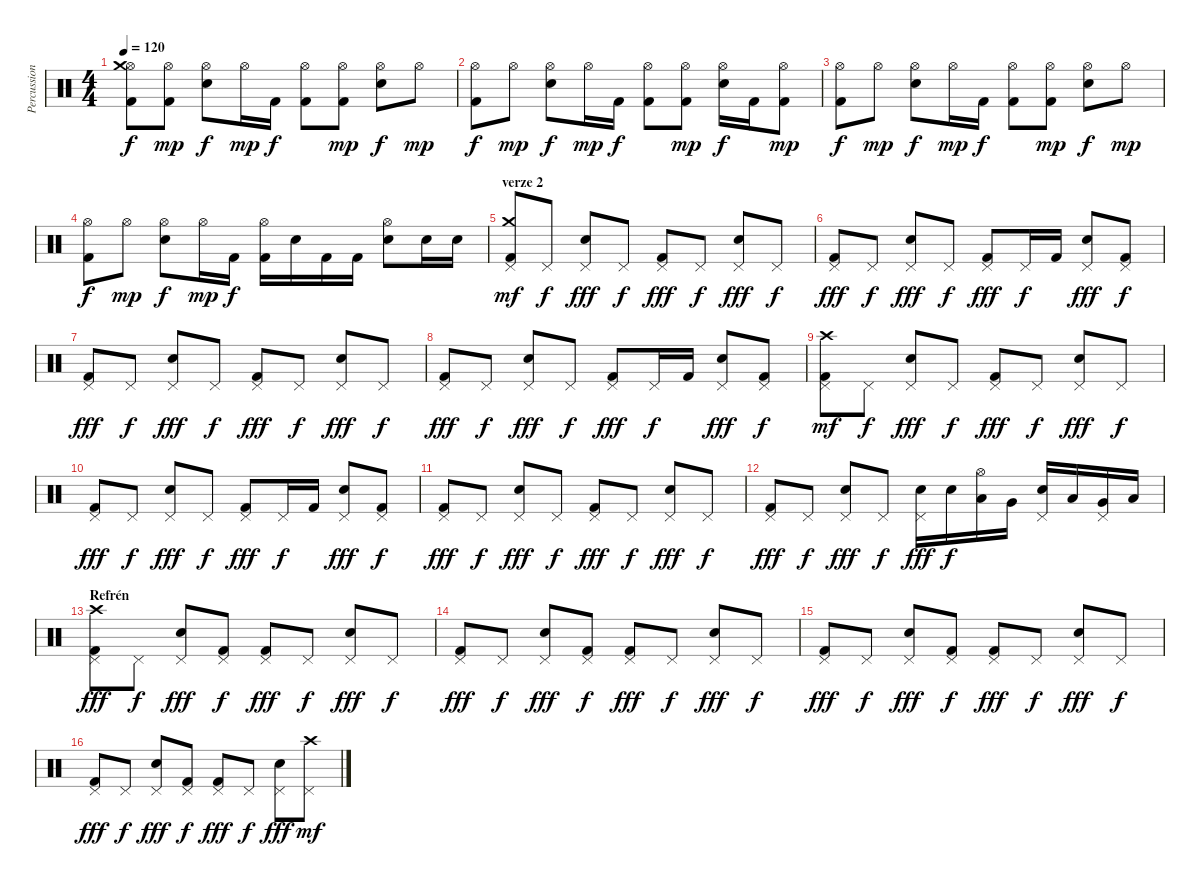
\track ("Percussion" "Percussion") {instrument percussion}
\staff {score}
\articulation defaults
\ts (4 4)
\tempo 120
\clef neutral
\ks c
("Hi-Hat (open)" "Kick (hit) 2" "Crash medium (hit)").8{dy f} ("Hi-Hat (open)" "Kick (hit) 2").8{dy mp} ("Hi-Hat (open)" "Snare (hit) 2").8{dy f} "Hi-Hat (open)".16{dy mp} "Kick (hit) 2".16{dy f} ("Hi-Hat (open)" "Kick (hit) 2").8 ("Hi-Hat (open)" "Kick (hit) 2").8{dy mp} ("Hi-Hat (open)" "Snare (hit) 2").8{dy f} "Hi-Hat (open)".8{dy mp} |
("Hi-Hat (open)" "Kick (hit) 2").8{dy f} "Hi-Hat (open)".8{dy mp} ("Hi-Hat (open)" "Snare (hit) 2").8{dy f} "Hi-Hat (open)".16{dy mp} "Kick (hit) 2".16{dy f} ("Hi-Hat (open)" "Kick (hit) 2").8 ("Hi-Hat (open)" "Kick (hit) 2").8{dy mp} ("Hi-Hat (open)" "Snare (hit) 2").16{dy f} "Kick (hit) 2".16 ("Hi-Hat (open)" "Kick (hit) 2").8{dy mp} |
("Hi-Hat (open)" "Kick (hit) 2").8{dy f} "Hi-Hat (open)".8{dy mp} ("Hi-Hat (open)" "Snare (hit) 2").8{dy f} "Hi-Hat (open)".16{dy mp} "Kick (hit) 2".16{dy f} ("Hi-Hat (open)" "Kick (hit) 2").8 ("Hi-Hat (open)" "Kick (hit) 2").8{dy mp} ("Hi-Hat (open)" "Snare (hit) 2").8{dy f} "Hi-Hat (open)".8{dy mp} |
("Hi-Hat (open)" "Kick (hit) 2").8{dy f} "Hi-Hat (open)".8{dy mp} ("Hi-Hat (open)" "Snare (hit) 2").8{dy f} "Hi-Hat (open)".16{dy mp} "Kick (hit) 2".16{dy f} ("Hi-Hat (open)" "Kick (hit) 2").16 "Snare (hit) 2".16 "Kick (hit) 2".16 "Kick (hit) 2".16 ("Hi-Hat (open)" "Snare (hit) 2").8 "Snare (hit) 2".16 "Snare (hit) 2".16 |
\section ("" "verze 2")
("Pedal Hi-Hat (hit)" "Kick (hit) 2" "Crash medium (hit)").8{dy mf} "Pedal Hi-Hat (hit)".8{dy f} ("Pedal Hi-Hat (hit)" "Snare (hit) 2").8{dy fff} "Pedal Hi-Hat (hit)".8{dy f} ("Pedal Hi-Hat (hit)" "Kick (hit) 2").8{dy fff} "Pedal Hi-Hat (hit)".8{dy f} ("Pedal Hi-Hat (hit)" "Snare (hit) 2").8{dy fff} "Pedal Hi-Hat (hit)".8{dy f} |
("Pedal Hi-Hat (hit)" "Kick (hit) 2").8{dy fff} "Pedal Hi-Hat (hit)".8{dy f} ("Pedal Hi-Hat (hit)" "Snare (hit) 2").8{dy fff} "Pedal Hi-Hat (hit)".8{dy f} ("Pedal Hi-Hat (hit)" "Kick (hit) 2").8{dy fff} "Pedal Hi-Hat (hit)".16{dy f} "Kick (hit) 2".16 ("Pedal Hi-Hat (hit)" "Snare (hit) 2").8{dy fff} ("Pedal Hi-Hat (hit)" "Kick (hit) 2").8{dy f} |
("Pedal Hi-Hat (hit)" "Kick (hit) 2").8{dy fff} "Pedal Hi-Hat (hit)".8{dy f} ("Pedal Hi-Hat (hit)" "Snare (hit) 2").8{dy fff} "Pedal Hi-Hat (hit)".8{dy f} ("Pedal Hi-Hat (hit)" "Kick (hit) 2").8{dy fff} "Pedal Hi-Hat (hit)".8{dy f} ("Pedal Hi-Hat (hit)" "Snare (hit) 2").8{dy fff} "Pedal Hi-Hat (hit)".8{dy f} |
("Pedal Hi-Hat (hit)" "Kick (hit) 2").8{dy fff} "Pedal Hi-Hat (hit)".8{dy f} ("Pedal Hi-Hat (hit)" "Snare (hit) 2").8{dy fff} "Pedal Hi-Hat (hit)".8{dy f} ("Pedal Hi-Hat (hit)" "Kick (hit) 2").8{dy fff} "Pedal Hi-Hat (hit)".16{dy f} "Kick (hit) 2".16 ("Pedal Hi-Hat (hit)" "Snare (hit) 2").8{dy fff} ("Pedal Hi-Hat (hit)" "Kick (hit) 2").8{dy f} |
("Pedal Hi-Hat (hit)" "Kick (hit) 2" "Crash high (hit)").8{dy mf} "Pedal Hi-Hat (hit)".8{dy f} ("Pedal Hi-Hat (hit)" "Snare (hit) 2").8{dy fff} "Pedal Hi-Hat (hit)".8{dy f} ("Pedal Hi-Hat (hit)" "Kick (hit) 2").8{dy fff} "Pedal Hi-Hat (hit)".8{dy f} ("Pedal Hi-Hat (hit)" "Snare (hit) 2").8{dy fff} "Pedal Hi-Hat (hit)".8{dy f} |
("Pedal Hi-Hat (hit)" "Kick (hit) 2").8{dy fff} "Pedal Hi-Hat (hit)".8{dy f} ("Pedal Hi-Hat (hit)" "Snare (hit) 2").8{dy fff} "Pedal Hi-Hat (hit)".8{dy f} ("Pedal Hi-Hat (hit)" "Kick (hit) 2").8{dy fff} "Pedal Hi-Hat (hit)".16{dy f} "Kick (hit) 2".16 ("Pedal Hi-Hat (hit)" "Snare (hit) 2").8{dy fff} ("Pedal Hi-Hat (hit)" "Kick (hit) 2").8{dy f} |
("Pedal Hi-Hat (hit)" "Kick (hit) 2").8{dy fff} "Pedal Hi-Hat (hit)".8{dy f} ("Pedal Hi-Hat (hit)" "Snare (hit) 2").8{dy fff} "Pedal Hi-Hat (hit)".8{dy f} ("Pedal Hi-Hat (hit)" "Kick (hit) 2").8{dy fff} "Pedal Hi-Hat (hit)".8{dy f} ("Pedal Hi-Hat (hit)" "Snare (hit) 2").8{dy fff} "Pedal Hi-Hat (hit)".8{dy f} |
("Pedal Hi-Hat (hit)" "Kick (hit) 2").8{dy fff} "Pedal Hi-Hat (hit)".8{dy f} ("Pedal Hi-Hat (hit)" "Snare (hit) 2").8{dy fff} "Pedal Hi-Hat (hit)".8{dy f} ("Pedal Hi-Hat (hit)" "Snare (hit) 2").16{dy fff} "Snare (hit) 2".16{dy f} ("Hi-Hat (open)" "Low Tom (hit)").16 "Very Low Tom (hit)".16 ("Pedal Hi-Hat (hit)" "Snare (hit) 2").16 "Low Tom (hit)".16 ("Pedal Hi-Hat (hit)" "Very Low Tom (hit)").16 "Low Floor Tom (hit)".16 |
\section ("" "Refrén")
("Pedal Hi-Hat (hit)" "Kick (hit) 2" "Crash high (hit)").8{dy fff} "Pedal Hi-Hat (hit)".8{dy f} ("Pedal Hi-Hat (hit)" "Snare (hit) 2").8{dy fff} ("Pedal Hi-Hat (hit)" "Kick (hit) 2").8{dy f} ("Pedal Hi-Hat (hit)" "Kick (hit) 2").8{dy fff} "Pedal Hi-Hat (hit)".8{dy f} ("Pedal Hi-Hat (hit)" "Snare (hit) 2").8{dy fff} "Pedal Hi-Hat (hit)".8{dy f} |
("Pedal Hi-Hat (hit)" "Kick (hit) 2").8{dy fff} "Pedal Hi-Hat (hit)".8{dy f} ("Pedal Hi-Hat (hit)" "Snare (hit) 2").8{dy fff} ("Pedal Hi-Hat (hit)" "Kick (hit) 2").8{dy f} ("Pedal Hi-Hat (hit)" "Kick (hit) 2").8{dy fff} "Pedal Hi-Hat (hit)".8{dy f} ("Pedal Hi-Hat (hit)" "Snare (hit) 2").8{dy fff} "Pedal Hi-Hat (hit)".8{dy f} |
("Pedal Hi-Hat (hit)" "Kick (hit) 2").8{dy fff} "Pedal Hi-Hat (hit)".8{dy f} ("Pedal Hi-Hat (hit)" "Snare (hit) 2").8{dy fff} ("Pedal Hi-Hat (hit)" "Kick (hit) 2").8{dy f} ("Pedal Hi-Hat (hit)" "Kick (hit) 2").8{dy fff} "Pedal Hi-Hat (hit)".8{dy f} ("Pedal Hi-Hat (hit)" "Snare (hit) 2").8{dy fff} "Pedal Hi-Hat (hit)".8{dy f} |
("Pedal Hi-Hat (hit)" "Kick (hit) 2").8{dy fff} "Pedal Hi-Hat (hit)".8{dy f} ("Pedal Hi-Hat (hit)" "Snare (hit) 2").8{dy fff} ("Pedal Hi-Hat (hit)" "Kick (hit) 2").8{dy f} ("Pedal Hi-Hat (hit)" "Kick (hit) 2").8{dy fff} "Pedal Hi-Hat (hit)".8{dy f} ("Pedal Hi-Hat (hit)" "Snare (hit) 2").8{dy fff} ("Pedal Hi-Hat (hit)" "Crash high (hit)").8{dy mf}
